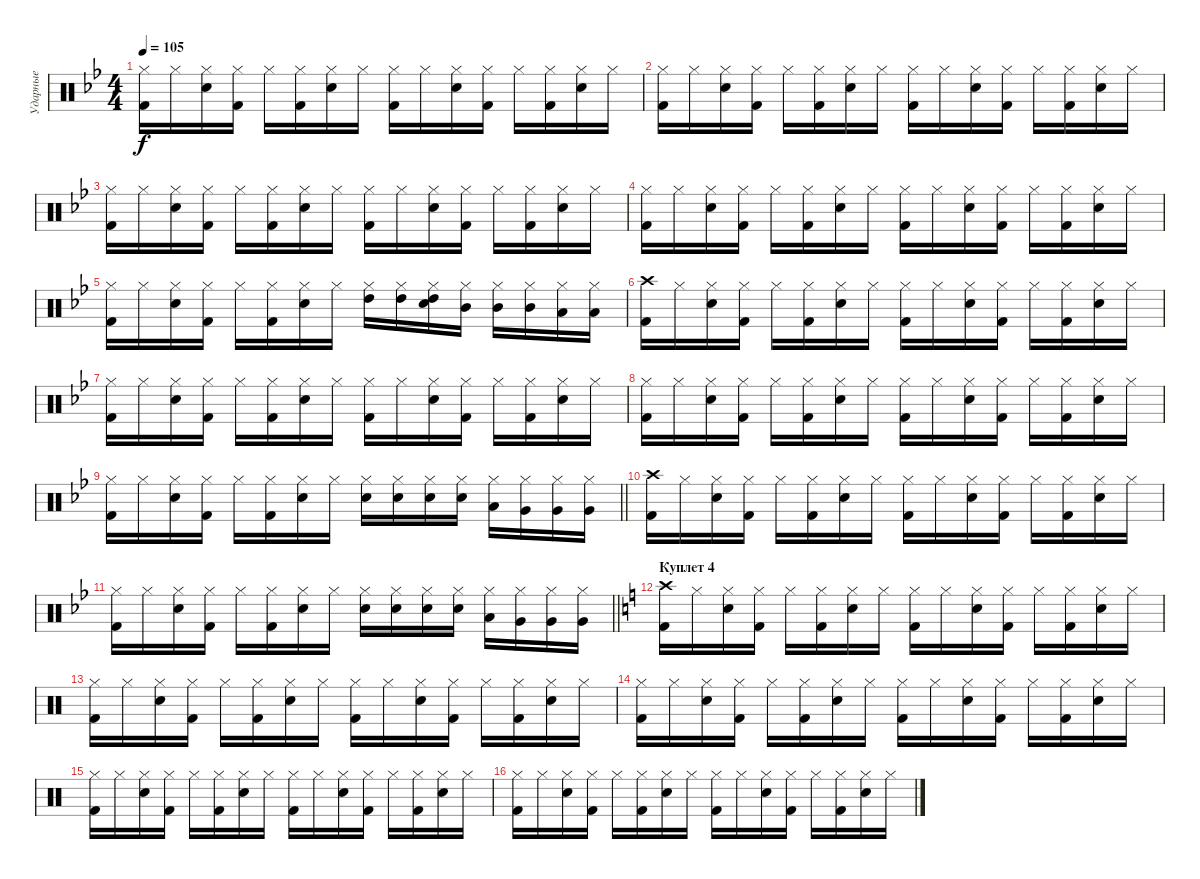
\track ("Ударные" "Ударные") {instrument percussion}
\staff {score}
\articulation defaults
\ts (4 4)
\tempo 105
\clef neutral
\ks gminor
("Hi-Hat (closed)" "Kick (hit) 2").16{dy f} "Hi-Hat (closed)".16 ("Hi-Hat (closed)" "Snare (hit) 2").16 ("Hi-Hat (closed)" "Kick (hit) 2").16 "Hi-Hat (closed)".16 ("Hi-Hat (closed)" "Kick (hit) 2").16 ("Hi-Hat (closed)" "Snare (hit) 2").16 "Hi-Hat (closed)".16 ("Hi-Hat (closed)" "Kick (hit) 2").16 "Hi-Hat (closed)".16 ("Hi-Hat (closed)" "Snare (hit) 2").16 ("Hi-Hat (closed)" "Kick (hit) 2").16 "Hi-Hat (closed)".16 ("Hi-Hat (closed)" "Kick (hit) 2").16 ("Hi-Hat (closed)" "Snare (hit) 2").16 "Hi-Hat (closed)".16 |
("Hi-Hat (closed)" "Kick (hit) 2").16 "Hi-Hat (closed)".16 ("Hi-Hat (closed)" "Snare (hit) 2").16 ("Hi-Hat (closed)" "Kick (hit) 2").16 "Hi-Hat (closed)".16 ("Hi-Hat (closed)" "Kick (hit) 2").16 ("Hi-Hat (closed)" "Snare (hit) 2").16 "Hi-Hat (closed)".16 ("Hi-Hat (closed)" "Kick (hit) 2").16 "Hi-Hat (closed)".16 ("Hi-Hat (closed)" "Snare (hit) 2").16 ("Hi-Hat (closed)" "Kick (hit) 2").16 "Hi-Hat (closed)".16 ("Hi-Hat (closed)" "Kick (hit) 2").16 ("Hi-Hat (closed)" "Snare (hit) 2").16 "Hi-Hat (closed)".16 |
("Hi-Hat (closed)" "Kick (hit) 2").16 "Hi-Hat (closed)".16 ("Hi-Hat (closed)" "Snare (hit) 2").16 ("Hi-Hat (closed)" "Kick (hit) 2").16 "Hi-Hat (closed)".16 ("Hi-Hat (closed)" "Kick (hit) 2").16 ("Hi-Hat (closed)" "Snare (hit) 2").16 "Hi-Hat (closed)".16 ("Hi-Hat (closed)" "Kick (hit) 2").16 "Hi-Hat (closed)".16 ("Hi-Hat (closed)" "Snare (hit) 2").16 ("Hi-Hat (closed)" "Kick (hit) 2").16 "Hi-Hat (closed)".16 ("Hi-Hat (closed)" "Kick (hit) 2").16 ("Hi-Hat (closed)" "Snare (hit) 2").16 "Hi-Hat (closed)".16 |
("Hi-Hat (closed)" "Kick (hit) 2").16 "Hi-Hat (closed)".16 ("Hi-Hat (closed)" "Snare (hit) 2").16 ("Hi-Hat (closed)" "Kick (hit) 2").16 "Hi-Hat (closed)".16 ("Hi-Hat (closed)" "Kick (hit) 2").16 ("Hi-Hat (closed)" "Snare (hit) 2").16 "Hi-Hat (closed)".16 ("Hi-Hat (closed)" "Kick (hit) 2").16 "Hi-Hat (closed)".16 ("Hi-Hat (closed)" "Snare (hit) 2").16 ("Hi-Hat (closed)" "Kick (hit) 2").16 "Hi-Hat (closed)".16 ("Hi-Hat (closed)" "Kick (hit) 2").16 ("Hi-Hat (closed)" "Snare (hit) 2").16 "Hi-Hat (closed)".16 |
("Hi-Hat (closed)" "Kick (hit) 2").16 "Hi-Hat (closed)".16 ("Hi-Hat (closed)" "Snare (hit) 2").16 ("Hi-Hat (closed)" "Kick (hit) 2").16 "Hi-Hat (closed)".16 ("Hi-Hat (closed)" "Kick (hit) 2").16 ("Hi-Hat (closed)" "Snare (hit) 2").16 "Hi-Hat (closed)".16 ("Hi-Hat (closed)" "High Tom (hit)").16 ("Hi-Hat (closed)" "High Tom (hit)").16 ("Hi-Hat (closed)" "Snare (hit) 2" "High Tom (hit)").16 ("Hi-Hat (closed)" "Mid Tom (hit)").16 ("Hi-Hat (closed)" "Mid Tom (hit)").16 ("Hi-Hat (closed)" "Mid Tom (hit)").16 ("Hi-Hat (closed)" "Low Tom (hit)").16 ("Hi-Hat (closed)" "Low Tom (hit)").16 |
("Crash high (hit)" "Kick (hit) 2").16 "Hi-Hat (closed)".16 ("Hi-Hat (closed)" "Snare (hit) 2").16 ("Hi-Hat (closed)" "Kick (hit) 2").16 "Hi-Hat (closed)".16 ("Hi-Hat (closed)" "Kick (hit) 2").16 ("Hi-Hat (closed)" "Snare (hit) 2").16 "Hi-Hat (closed)".16 ("Hi-Hat (closed)" "Kick (hit) 2").16 "Hi-Hat (closed)".16 ("Hi-Hat (closed)" "Snare (hit) 2").16 ("Hi-Hat (closed)" "Kick (hit) 2").16 "Hi-Hat (closed)".16 ("Hi-Hat (closed)" "Kick (hit) 2").16 ("Hi-Hat (closed)" "Snare (hit) 2").16 "Hi-Hat (closed)".16 |
("Hi-Hat (closed)" "Kick (hit) 2").16 "Hi-Hat (closed)".16 ("Hi-Hat (closed)" "Snare (hit) 2").16 ("Hi-Hat (closed)" "Kick (hit) 2").16 "Hi-Hat (closed)".16 ("Hi-Hat (closed)" "Kick (hit) 2").16 ("Hi-Hat (closed)" "Snare (hit) 2").16 "Hi-Hat (closed)".16 ("Hi-Hat (closed)" "Kick (hit) 2").16 "Hi-Hat (closed)".16 ("Hi-Hat (closed)" "Snare (hit) 2").16 ("Hi-Hat (closed)" "Kick (hit) 2").16 "Hi-Hat (closed)".16 ("Hi-Hat (closed)" "Kick (hit) 2").16 ("Hi-Hat (closed)" "Snare (hit) 2").16 "Hi-Hat (closed)".16 |
("Hi-Hat (closed)" "Kick (hit) 2").16 "Hi-Hat (closed)".16 ("Hi-Hat (closed)" "Snare (hit) 2").16 ("Hi-Hat (closed)" "Kick (hit) 2").16 "Hi-Hat (closed)".16 ("Hi-Hat (closed)" "Kick (hit) 2").16 ("Hi-Hat (closed)" "Snare (hit) 2").16 "Hi-Hat (closed)".16 ("Hi-Hat (closed)" "Kick (hit) 2").16 "Hi-Hat (closed)".16 ("Hi-Hat (closed)" "Snare (hit) 2").16 ("Hi-Hat (closed)" "Kick (hit) 2").16 "Hi-Hat (closed)".16 ("Hi-Hat (closed)" "Kick (hit) 2").16 ("Hi-Hat (closed)" "Snare (hit) 2").16 "Hi-Hat (closed)".16 |
\barLineRight lightlight
("Hi-Hat (closed)" "Kick (hit) 2").16 "Hi-Hat (closed)".16 ("Hi-Hat (closed)" "Snare (hit) 2").16 ("Hi-Hat (closed)" "Kick (hit) 2").16 "Hi-Hat (closed)".16 ("Hi-Hat (closed)" "Kick (hit) 2").16 ("Hi-Hat (closed)" "Snare (hit) 2").16 "Hi-Hat (closed)".16 ("Hi-Hat (closed)" "Snare (hit) 2").16 ("Hi-Hat (closed)" "Snare (hit) 2").16 ("Hi-Hat (closed)" "Snare (hit) 2").16 ("Hi-Hat (closed)" "Snare (hit) 2").16 ("Hi-Hat (closed)" "Low Tom (hit)").16 ("Hi-Hat (closed)" "Very Low Tom (hit)").16 ("Hi-Hat (closed)" "Very Low Tom (hit)").16 ("Hi-Hat (closed)" "Very Low Tom (hit)").16 |
\section ("" "")
("Crash high (hit)" "Kick (hit) 2").16 "Hi-Hat (closed)".16 ("Hi-Hat (closed)" "Snare (hit) 2").16 ("Hi-Hat (closed)" "Kick (hit) 2").16 "Hi-Hat (closed)".16 ("Hi-Hat (closed)" "Kick (hit) 2").16 ("Hi-Hat (closed)" "Snare (hit) 2").16 "Hi-Hat (closed)".16 ("Hi-Hat (closed)" "Kick (hit) 2").16 "Hi-Hat (closed)".16 ("Hi-Hat (closed)" "Snare (hit) 2").16 ("Hi-Hat (closed)" "Kick (hit) 2").16 "Hi-Hat (closed)".16 ("Hi-Hat (closed)" "Kick (hit) 2").16 ("Hi-Hat (closed)" "Snare (hit) 2").16 "Hi-Hat (closed)".16 |
\barLineRight lightlight
("Hi-Hat (closed)" "Kick (hit) 2").16 "Hi-Hat (closed)".16 ("Hi-Hat (closed)" "Snare (hit) 2").16 ("Hi-Hat (closed)" "Kick (hit) 2").16 "Hi-Hat (closed)".16 ("Hi-Hat (closed)" "Kick (hit) 2").16 ("Hi-Hat (closed)" "Snare (hit) 2").16 "Hi-Hat (closed)".16 ("Hi-Hat (closed)" "Snare (hit) 2").16 ("Hi-Hat (closed)" "Snare (hit) 2").16 ("Hi-Hat (closed)" "Snare (hit) 2").16 ("Hi-Hat (closed)" "Snare (hit) 2").16 ("Hi-Hat (closed)" "Low Tom (hit)").16 ("Hi-Hat (closed)" "Very Low Tom (hit)").16 ("Hi-Hat (closed)" "Very Low Tom (hit)").16 ("Hi-Hat (closed)" "Very Low Tom (hit)").16 |
\section ("" "Куплет 4")
\ks aminor
("Crash high (hit)" "Kick (hit) 2").16 "Hi-Hat (closed)".16 ("Hi-Hat (closed)" "Snare (hit) 2").16 ("Hi-Hat (closed)" "Kick (hit) 2").16 "Hi-Hat (closed)".16 ("Hi-Hat (closed)" "Kick (hit) 2").16 ("Hi-Hat (closed)" "Snare (hit) 2").16 "Hi-Hat (closed)".16 ("Hi-Hat (closed)" "Kick (hit) 2").16 "Hi-Hat (closed)".16 ("Hi-Hat (closed)" "Snare (hit) 2").16 ("Hi-Hat (closed)" "Kick (hit) 2").16 "Hi-Hat (closed)".16 ("Hi-Hat (closed)" "Kick (hit) 2").16 ("Hi-Hat (closed)" "Snare (hit) 2").16 "Hi-Hat (closed)".16 |
("Hi-Hat (closed)" "Kick (hit) 2").16 "Hi-Hat (closed)".16 ("Hi-Hat (closed)" "Snare (hit) 2").16 ("Hi-Hat (closed)" "Kick (hit) 2").16 "Hi-Hat (closed)".16 ("Hi-Hat (closed)" "Kick (hit) 2").16 ("Hi-Hat (closed)" "Snare (hit) 2").16 "Hi-Hat (closed)".16 ("Hi-Hat (closed)" "Kick (hit) 2").16 "Hi-Hat (closed)".16 ("Hi-Hat (closed)" "Snare (hit) 2").16 ("Hi-Hat (closed)" "Kick (hit) 2").16 "Hi-Hat (closed)".16 ("Hi-Hat (closed)" "Kick (hit) 2").16 ("Hi-Hat (closed)" "Snare (hit) 2").16 "Hi-Hat (closed)".16 |
("Hi-Hat (closed)" "Kick (hit) 2").16 "Hi-Hat (closed)".16 ("Hi-Hat (closed)" "Snare (hit) 2").16 ("Hi-Hat (closed)" "Kick (hit) 2").16 "Hi-Hat (closed)".16 ("Hi-Hat (closed)" "Kick (hit) 2").16 ("Hi-Hat (closed)" "Snare (hit) 2").16 "Hi-Hat (closed)".16 ("Hi-Hat (closed)" "Kick (hit) 2").16 "Hi-Hat (closed)".16 ("Hi-Hat (closed)" "Snare (hit) 2").16 ("Hi-Hat (closed)" "Kick (hit) 2").16 "Hi-Hat (closed)".16 ("Hi-Hat (closed)" "Kick (hit) 2").16 ("Hi-Hat (closed)" "Snare (hit) 2").16 "Hi-Hat (closed)".16 |
("Hi-Hat (closed)" "Kick (hit) 2").16 "Hi-Hat (closed)".16 ("Hi-Hat (closed)" "Snare (hit) 2").16 ("Hi-Hat (closed)" "Kick (hit) 2").16 "Hi-Hat (closed)".16 ("Hi-Hat (closed)" "Kick (hit) 2").16 ("Hi-Hat (closed)" "Snare (hit) 2").16 "Hi-Hat (closed)".16 ("Hi-Hat (closed)" "Kick (hit) 2").16 "Hi-Hat (closed)".16 ("Hi-Hat (closed)" "Snare (hit) 2").16 ("Hi-Hat (closed)" "Kick (hit) 2").16 "Hi-Hat (closed)".16 ("Hi-Hat (closed)" "Kick (hit) 2").16 ("Hi-Hat (closed)" "Snare (hit) 2").16 "Hi-Hat (closed)".16 |
("Hi-Hat (closed)" "Kick (hit) 2").16 "Hi-Hat (closed)".16 ("Hi-Hat (closed)" "Snare (hit) 2").16 ("Hi-Hat (closed)" "Kick (hit) 2").16 "Hi-Hat (closed)".16 ("Hi-Hat (closed)" "Kick (hit) 2").16 ("Hi-Hat (closed)" "Snare (hit) 2").16 "Hi-Hat (closed)".16 ("Hi-Hat (closed)" "Kick (hit) 2").16 "Hi-Hat (closed)".16 ("Hi-Hat (closed)" "Snare (hit) 2").16 ("Hi-Hat (closed)" "Kick (hit) 2").16 "Hi-Hat (closed)".16 ("Hi-Hat (closed)" "Kick (hit) 2").16 ("Hi-Hat (closed)" "Snare (hit) 2").16 "Hi-Hat (closed)".16
